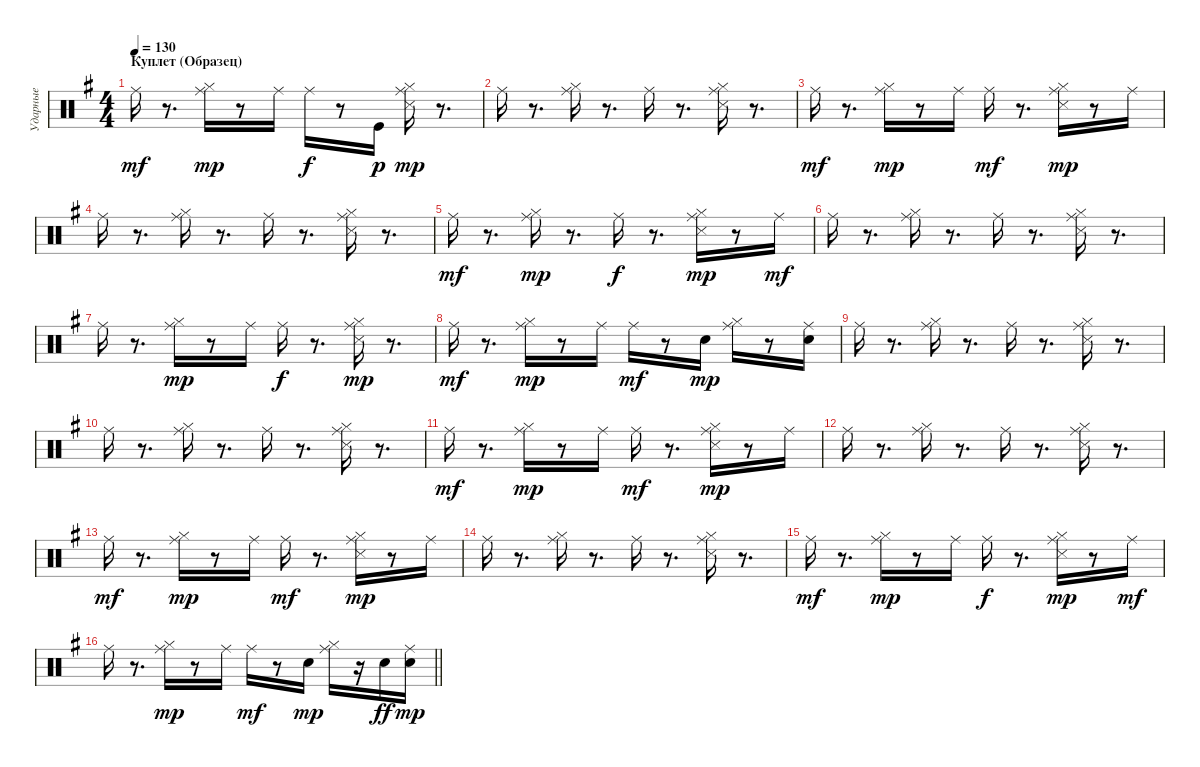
\track ("Ударные" "Ударные") {instrument percussion}
\staff {score}
\articulation defaults
\ts (4 4)
\section ("" "Куплет (Образец)")
\tempo 130
\clef neutral
\ks eminor "Ride (middle)".16{dy mf}
r.8{d} ("Hi-Hat (closed)" "Ride (middle)").16{dy mp} r.8 "Ride (middle)".16 "Ride (middle)".16{dy f} r.8 "Kick (hit)".16{dy p} ("Hi-Hat (closed)" "Snare (side stick) 3" "Ride (middle)").16{dy mp} r.8{d} |
"Ride (middle)".16 r.8{d} ("Hi-Hat (closed)" "Ride (middle)").16 r.8{d} "Ride (middle)".16 r.8{d} ("Hi-Hat (closed)" "Snare (side stick) 3" "Ride (middle)").16 r.8{d} |
"Ride (middle)".16{dy mf} r.8{d} ("Hi-Hat (closed)" "Ride (middle)").16{dy mp} r.8 "Ride (middle)".16 "Ride (middle)".16{dy mf} r.8{d} ("Hi-Hat (closed)" "Snare (side stick) 3" "Ride (middle)").16{dy mp} r.8 "Ride (middle)".16 |
"Ride (middle)".16 r.8{d} ("Hi-Hat (closed)" "Ride (middle)").16 r.8{d} "Ride (middle)".16 r.8{d} ("Hi-Hat (closed)" "Snare (side stick) 3" "Ride (middle)").16 r.8{d} |
"Ride (middle)".16{dy mf} r.8{d} ("Hi-Hat (closed)" "Ride (middle)").16{dy mp} r.8{d} "Ride (middle)".16{dy f} r.8{d} ("Hi-Hat (closed)" "Snare (side stick) 3" "Ride (middle)").16{dy mp} r.8 "Ride (middle)".16{dy mf} |
"Ride (middle)".16 r.8{d} ("Hi-Hat (closed)" "Ride (middle)").16 r.8{d} "Ride (middle)".16 r.8{d} ("Hi-Hat (closed)" "Snare (side stick) 3" "Ride (middle)").16 r.8{d} |
"Ride (middle)".16 r.8{d} ("Hi-Hat (closed)" "Ride (middle)").16{dy mp} r.8 "Ride (middle)".16 "Ride (middle)".16{dy f} r.8{d} ("Hi-Hat (closed)" "Snare (side stick) 3" "Ride (middle)").16{dy mp} r.8{d} |
"Ride (middle)".16{dy mf} r.8{d} ("Hi-Hat (closed)" "Ride (middle)").16{dy mp} r.8 "Ride (middle)".16 "Ride (middle)".16{dy mf} r.8 "Snare (hit) 2".16{dy mp} ("Hi-Hat (closed)" "Ride (middle)").16 r.8 ("Snare (hit) 2" "Ride (middle)").16 |
"Ride (middle)".16 r.8{d} ("Hi-Hat (closed)" "Ride (middle)").16 r.8{d} "Ride (middle)".16 r.8{d} ("Hi-Hat (closed)" "Snare (side stick) 3" "Ride (middle)").16 r.8{d} |
"Ride (middle)".16 r.8{d} ("Hi-Hat (closed)" "Ride (middle)").16 r.8{d} "Ride (middle)".16 r.8{d} ("Hi-Hat (closed)" "Snare (side stick) 3" "Ride (middle)").16 r.8{d} |
"Ride (middle)".16{dy mf} r.8{d} ("Hi-Hat (closed)" "Ride (middle)").16{dy mp} r.8 "Ride (middle)".16 "Ride (middle)".16{dy mf} r.8{d} ("Hi-Hat (closed)" "Snare (side stick) 3" "Ride (middle)").16{dy mp} r.8 "Ride (middle)".16 |
"Ride (middle)".16 r.8{d} ("Hi-Hat (closed)" "Ride (middle)").16 r.8{d} "Ride (middle)".16 r.8{d} ("Hi-Hat (closed)" "Snare (side stick) 3" "Ride (middle)").16 r.8{d} |
"Ride (middle)".16{dy mf} r.8{d} ("Hi-Hat (closed)" "Ride (middle)").16{dy mp} r.8 "Ride (middle)".16 "Ride (middle)".16{dy mf} r.8{d} ("Hi-Hat (closed)" "Snare (side stick) 3" "Ride (middle)").16{dy mp} r.8 "Ride (middle)".16 |
"Ride (middle)".16 r.8{d} ("Hi-Hat (closed)" "Ride (middle)").16 r.8{d} "Ride (middle)".16 r.8{d} ("Hi-Hat (closed)" "Snare (side stick) 3" "Ride (middle)").16 r.8{d} |
"Ride (middle)".16{dy mf} r.8{d} ("Hi-Hat (closed)" "Ride (middle)").16{dy mp} r.8 "Ride (middle)".16 "Ride (middle)".16{dy f} r.8{d} ("Hi-Hat (closed)" "Snare (side stick) 3" "Ride (middle)").16{dy mp} r.8 "Ride (middle)".16{dy mf} |
\barLineRight lightlight "Ride (middle)".16
r.8{d} ("Hi-Hat (closed)" "Ride (middle)").16{dy mp} r.8 "Ride (middle)".16 "Ride (middle)".16{dy mf} r.8 "Snare (hit) 2".16{dy mp} ("Hi-Hat (closed)" "Ride (middle)").16 r.16 "Electric Snare (hit)".16{dy ff} ("Snare (hit) 2" "Ride (middle)").16{dy mp}
